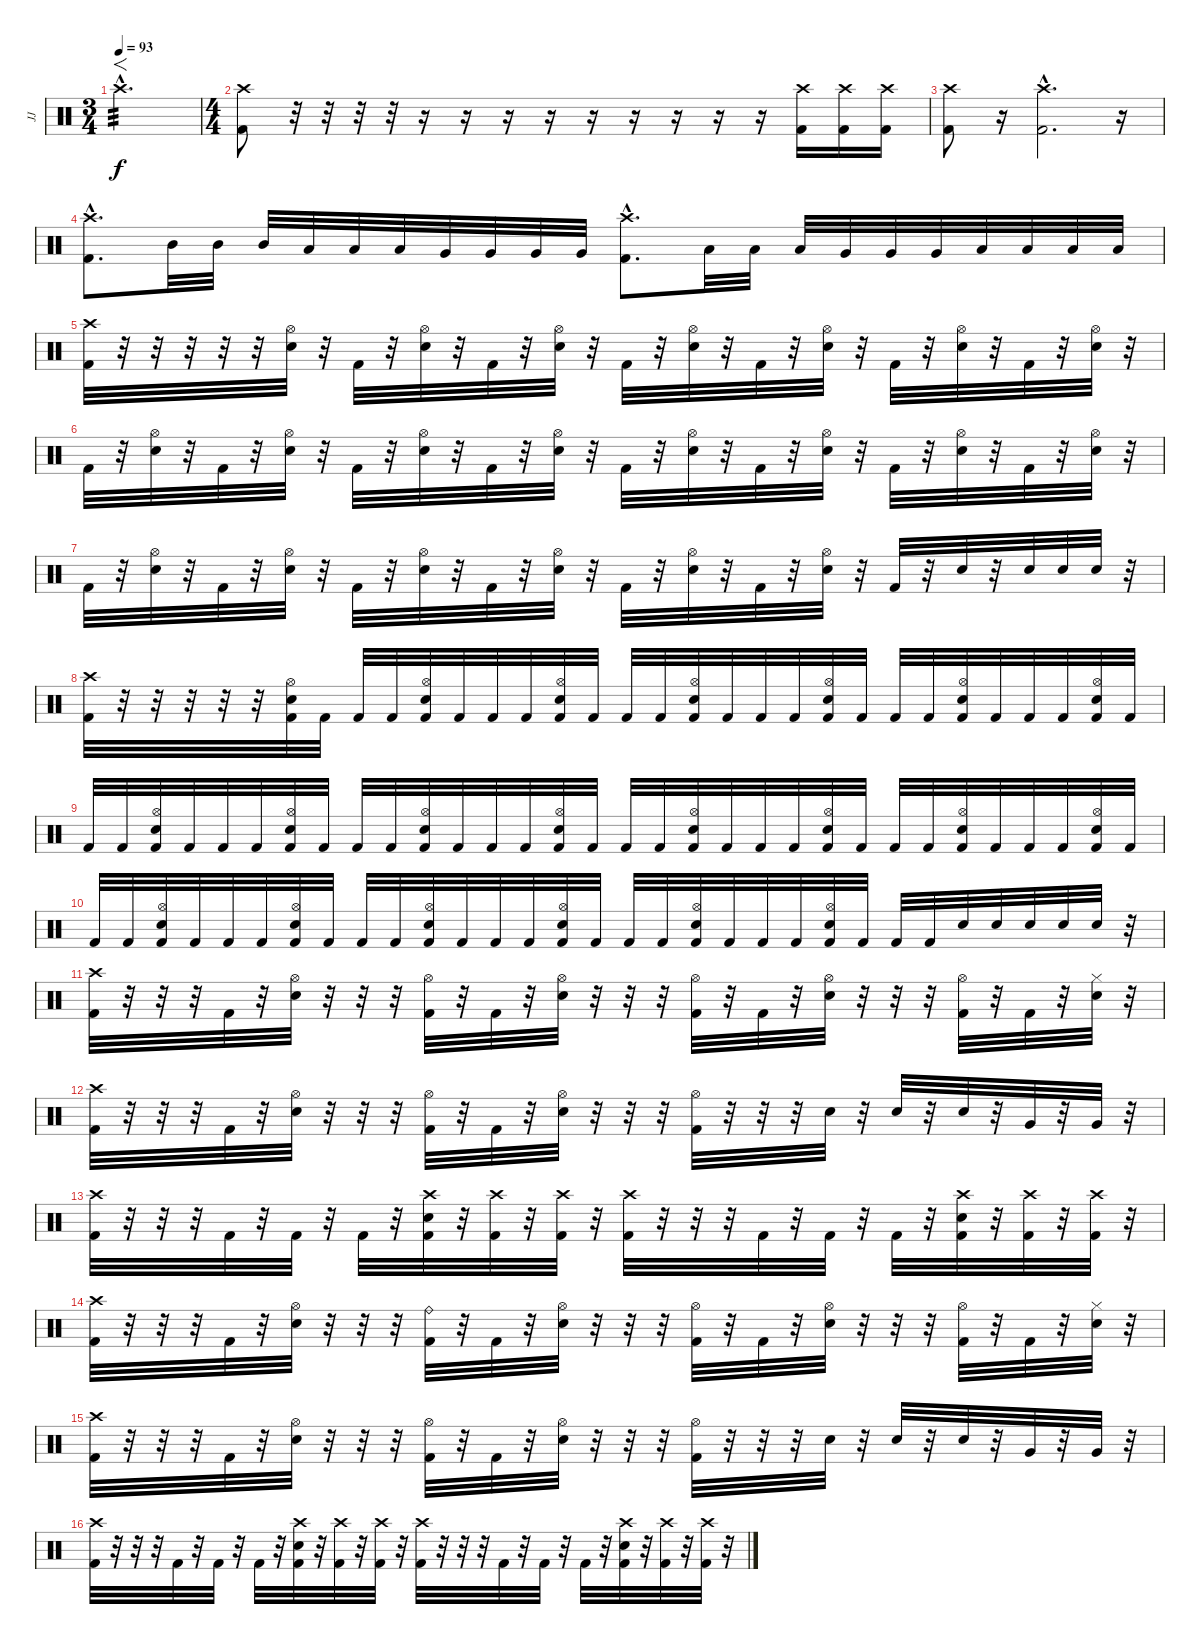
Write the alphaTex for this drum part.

\track ("JJ" "JJ") {instrument percussion}
\staff {score}
\articulation defaults
\ts (3 4)
\tempo 93
\clef neutral
\ks c "Crash high (hit)"{hac}.2{f d tp 3 dy f}
|
\ts (4 4)
("Crash high (hit)" "Kick (hit) 2").8 r.32{volume 0} r.32 r.32 r.32 r.16 r.16 r.16 r.16 r.16 r.16 r.16 r.16 r.16 ("Crash high (hit)" "Kick (hit) 2").16{volume 16} ("Crash high (hit)" "Kick (hit) 2").16 ("Crash high (hit)" "Kick (hit) 2").16 |
("Crash high (hit)" "Kick (hit) 2").8 r.16{volume 0} ("Crash high (hit)"{hac} "Kick (hit) 2"{hac}).2{d volume 16} r.16 |
("Crash high (hit)"{hac} "Kick (hit) 2"{hac}).8{d} "Mid Tom (hit)".32 "Mid Tom (hit)".32 "Mid Tom (hit)".32 "Low Tom (hit)".32 "Low Tom (hit)".32 "Low Tom (hit)".32 "Very Low Tom (hit)".32 "Very Low Tom (hit)".32 "Very Low Tom (hit)".32 "Very Low Tom (hit)".32 ("Crash high (hit)"{hac} "Kick (hit) 2"{hac}).8{d} "Low Tom (hit)".32 "Low Tom (hit)".32 "Low Tom (hit)".32 "Very Low Tom (hit)".32 "Very Low Tom (hit)".32 "Very Low Tom (hit)".32 "Low Floor Tom (hit)".32 "Low Floor Tom (hit)".32 "Low Floor Tom (hit)".32 "Low Floor Tom (hit)".32 |
("Crash high (hit)" "Kick (hit) 2").32 r.32 r.32 r.32 r.32 r.32 ("Hi-Hat (open)" "Electric Snare (hit)").32 r.32 "Kick (hit) 2".32 r.32 ("Hi-Hat (open)" "Electric Snare (hit)").32 r.32 "Kick (hit) 2".32 r.32 ("Hi-Hat (open)" "Electric Snare (hit)").32 r.32 "Kick (hit) 2".32 r.32 ("Hi-Hat (open)" "Electric Snare (hit)").32 r.32 "Kick (hit) 2".32 r.32 ("Hi-Hat (open)" "Electric Snare (hit)").32 r.32 "Kick (hit) 2".32 r.32 ("Hi-Hat (open)" "Electric Snare (hit)").32 r.32 "Kick (hit) 2".32 r.32 ("Hi-Hat (open)" "Electric Snare (hit)").32 r.32 |
"Kick (hit) 2".32 r.32 ("Hi-Hat (open)" "Electric Snare (hit)").32 r.32 "Kick (hit) 2".32 r.32 ("Hi-Hat (open)" "Electric Snare (hit)").32 r.32 "Kick (hit) 2".32 r.32 ("Hi-Hat (open)" "Electric Snare (hit)").32 r.32 "Kick (hit) 2".32 r.32 ("Hi-Hat (open)" "Electric Snare (hit)").32 r.32 "Kick (hit) 2".32 r.32 ("Hi-Hat (open)" "Electric Snare (hit)").32 r.32 "Kick (hit) 2".32 r.32 ("Hi-Hat (open)" "Electric Snare (hit)").32 r.32 "Kick (hit) 2".32 r.32 ("Hi-Hat (open)" "Electric Snare (hit)").32 r.32 "Kick (hit) 2".32 r.32 ("Hi-Hat (open)" "Electric Snare (hit)").32 r.32 |
"Kick (hit) 2".32 r.32 ("Hi-Hat (open)" "Electric Snare (hit)").32 r.32 "Kick (hit) 2".32 r.32 ("Hi-Hat (open)" "Electric Snare (hit)").32 r.32 "Kick (hit) 2".32 r.32 ("Hi-Hat (open)" "Electric Snare (hit)").32 r.32 "Kick (hit) 2".32 r.32 ("Hi-Hat (open)" "Electric Snare (hit)").32 r.32 "Kick (hit) 2".32 r.32 ("Hi-Hat (open)" "Electric Snare (hit)").32 r.32 "Kick (hit) 2".32 r.32 ("Hi-Hat (open)" "Electric Snare (hit)").32 r.32 "Kick (hit) 2".32 r.32 "Electric Snare (hit)".32 r.32 "Electric Snare (hit)".32 "Electric Snare (hit)".32 "Electric Snare (hit)".32 r.32 |
("Crash high (hit)" "Kick (hit) 2").32 r.32 r.32 r.32 r.32 r.32 ("Hi-Hat (open)" "Electric Snare (hit)" "Kick (hit) 2").32 "Kick (hit) 2".32 "Kick (hit) 2".32 "Kick (hit) 2".32 ("Hi-Hat (open)" "Electric Snare (hit)" "Kick (hit) 2").32 "Kick (hit) 2".32 "Kick (hit) 2".32 "Kick (hit) 2".32 ("Hi-Hat (open)" "Electric Snare (hit)" "Kick (hit) 2").32 "Kick (hit) 2".32 "Kick (hit) 2".32 "Kick (hit) 2".32 ("Hi-Hat (open)" "Electric Snare (hit)" "Kick (hit) 2").32 "Kick (hit) 2".32 "Kick (hit) 2".32 "Kick (hit) 2".32 ("Hi-Hat (open)" "Electric Snare (hit)" "Kick (hit) 2").32 "Kick (hit) 2".32 "Kick (hit) 2".32 "Kick (hit) 2".32 ("Hi-Hat (open)" "Electric Snare (hit)" "Kick (hit) 2").32 "Kick (hit) 2".32 "Kick (hit) 2".32 "Kick (hit) 2".32 ("Hi-Hat (open)" "Electric Snare (hit)" "Kick (hit) 2").32 "Kick (hit) 2".32 |
"Kick (hit) 2".32 "Kick (hit) 2".32 ("Hi-Hat (open)" "Electric Snare (hit)" "Kick (hit) 2").32 "Kick (hit) 2".32 "Kick (hit) 2".32 "Kick (hit) 2".32 ("Hi-Hat (open)" "Electric Snare (hit)" "Kick (hit) 2").32 "Kick (hit) 2".32 "Kick (hit) 2".32 "Kick (hit) 2".32 ("Hi-Hat (open)" "Electric Snare (hit)" "Kick (hit) 2").32 "Kick (hit) 2".32 "Kick (hit) 2".32 "Kick (hit) 2".32 ("Hi-Hat (open)" "Electric Snare (hit)" "Kick (hit) 2").32 "Kick (hit) 2".32 "Kick (hit) 2".32 "Kick (hit) 2".32 ("Hi-Hat (open)" "Electric Snare (hit)" "Kick (hit) 2").32 "Kick (hit) 2".32 "Kick (hit) 2".32 "Kick (hit) 2".32 ("Hi-Hat (open)" "Electric Snare (hit)" "Kick (hit) 2").32 "Kick (hit) 2".32 "Kick (hit) 2".32 "Kick (hit) 2".32 ("Hi-Hat (open)" "Electric Snare (hit)" "Kick (hit) 2").32 "Kick (hit) 2".32 "Kick (hit) 2".32 "Kick (hit) 2".32 ("Hi-Hat (open)" "Electric Snare (hit)" "Kick (hit) 2").32 "Kick (hit) 2".32 |
"Kick (hit) 2".32 "Kick (hit) 2".32 ("Hi-Hat (open)" "Electric Snare (hit)" "Kick (hit) 2").32 "Kick (hit) 2".32 "Kick (hit) 2".32 "Kick (hit) 2".32 ("Hi-Hat (open)" "Electric Snare (hit)" "Kick (hit) 2").32 "Kick (hit) 2".32 "Kick (hit) 2".32 "Kick (hit) 2".32 ("Hi-Hat (open)" "Electric Snare (hit)" "Kick (hit) 2").32 "Kick (hit) 2".32 "Kick (hit) 2".32 "Kick (hit) 2".32 ("Hi-Hat (open)" "Electric Snare (hit)" "Kick (hit) 2").32 "Kick (hit) 2".32 "Kick (hit) 2".32 "Kick (hit) 2".32 ("Hi-Hat (open)" "Electric Snare (hit)" "Kick (hit) 2").32 "Kick (hit) 2".32 "Kick (hit) 2".32 "Kick (hit) 2".32 ("Hi-Hat (open)" "Electric Snare (hit)" "Kick (hit) 2").32 "Kick (hit) 2".32 "Kick (hit) 2".32 "Kick (hit) 2".32 "Electric Snare (hit)".32 "Electric Snare (hit)".32 "Electric Snare (hit)".32 "Electric Snare (hit)".32 "Electric Snare (hit)".32 r.32 |
("Crash high (hit)" "Kick (hit) 2").32 r.32 r.32 r.32 "Kick (hit) 2".32 r.32 ("Hi-Hat (open)" "Electric Snare (hit)").32 r.32 r.32 r.32 ("Hi-Hat (open)" "Kick (hit) 2").32 r.32 "Kick (hit) 2".32 r.32 ("Hi-Hat (open)" "Electric Snare (hit)").32 r.32 r.32 r.32 ("Hi-Hat (open)" "Kick (hit) 2").32 r.32 "Kick (hit) 2".32 r.32 ("Hi-Hat (open)" "Electric Snare (hit)").32 r.32 r.32 r.32 ("Hi-Hat (open)" "Kick (hit) 2").32 r.32 "Kick (hit) 2".32 r.32 ("Hi-Hat (closed)" "Electric Snare (hit)").32 r.32 |
("Crash high (hit)" "Kick (hit) 2").32 r.32 r.32 r.32 "Kick (hit) 2".32 r.32 ("Hi-Hat (open)" "Electric Snare (hit)").32 r.32 r.32 r.32 ("Hi-Hat (open)" "Kick (hit) 2").32 r.32 "Kick (hit) 2".32 r.32 ("Hi-Hat (open)" "Electric Snare (hit)").32 r.32 r.32 r.32 ("Hi-Hat (open)" "Kick (hit) 2").32 r.32 r.32 r.32 "Electric Snare (hit)".32 r.32 "Electric Snare (hit)".32 r.32 "Electric Snare (hit)".32 r.32 "Very Low Tom (hit)".32 r.32 "Very Low Tom (hit)".32 r.32 |
("Crash high (hit)" "Kick (hit) 2").32 r.32 r.32 r.32 "Kick (hit) 2".32 r.32 "Kick (hit) 2".32 r.32 "Kick (hit) 2".32 r.32 ("Crash high (hit)" "Electric Snare (hit)" "Kick (hit) 2").32 r.32 ("Crash high (hit)" "Kick (hit) 2").32 r.32 ("Crash high (hit)" "Kick (hit) 2").32 r.32 ("Crash high (hit)" "Kick (hit) 2").32 r.32 r.32 r.32 "Kick (hit) 2".32 r.32 "Kick (hit) 2".32 r.32 "Kick (hit) 2".32 r.32 ("Crash high (hit)" "Electric Snare (hit)" "Kick (hit) 2").32 r.32 ("Crash high (hit)" "Kick (hit) 2").32 r.32 ("Crash high (hit)" "Kick (hit) 2").32 r.32 |
("Crash high (hit)" "Kick (hit) 2").32 r.32 r.32 r.32 "Kick (hit) 2".32 r.32 ("Hi-Hat (open)" "Electric Snare (hit)").32 r.32 r.32 r.32 ("Ride (bell)" "Kick (hit) 2").32 r.32 "Kick (hit) 2".32 r.32 ("Hi-Hat (open)" "Electric Snare (hit)").32 r.32 r.32 r.32 ("Hi-Hat (open)" "Kick (hit) 2").32 r.32 "Kick (hit) 2".32 r.32 ("Hi-Hat (open)" "Electric Snare (hit)").32 r.32 r.32 r.32 ("Hi-Hat (open)" "Kick (hit) 2").32 r.32 "Kick (hit) 2".32 r.32 ("Hi-Hat (closed)" "Electric Snare (hit)").32 r.32 |
("Crash high (hit)" "Kick (hit) 2").32 r.32 r.32 r.32 "Kick (hit) 2".32 r.32 ("Hi-Hat (open)" "Electric Snare (hit)").32 r.32 r.32 r.32 ("Hi-Hat (open)" "Kick (hit) 2").32 r.32 "Kick (hit) 2".32 r.32 ("Hi-Hat (open)" "Electric Snare (hit)").32 r.32 r.32 r.32 ("Hi-Hat (open)" "Kick (hit) 2").32 r.32 r.32 r.32 "Electric Snare (hit)".32 r.32 "Electric Snare (hit)".32 r.32 "Electric Snare (hit)".32 r.32 "Very Low Tom (hit)".32 r.32 "Very Low Tom (hit)".32 r.32 |
("Crash high (hit)" "Kick (hit) 2").32 r.32 r.32 r.32 "Kick (hit) 2".32 r.32 "Kick (hit) 2".32 r.32 "Kick (hit) 2".32 r.32 ("Crash high (hit)" "Electric Snare (hit)" "Kick (hit) 2").32 r.32 ("Crash high (hit)" "Kick (hit) 2").32 r.32 ("Crash high (hit)" "Kick (hit) 2").32 r.32 ("Crash high (hit)" "Kick (hit) 2").32 r.32 r.32 r.32 "Kick (hit) 2".32 r.32 "Kick (hit) 2".32 r.32 "Kick (hit) 2".32 r.32 ("Crash high (hit)" "Electric Snare (hit)" "Kick (hit) 2").32 r.32 ("Crash high (hit)" "Kick (hit) 2").32 r.32 ("Crash high (hit)" "Kick (hit) 2").32 r.32
